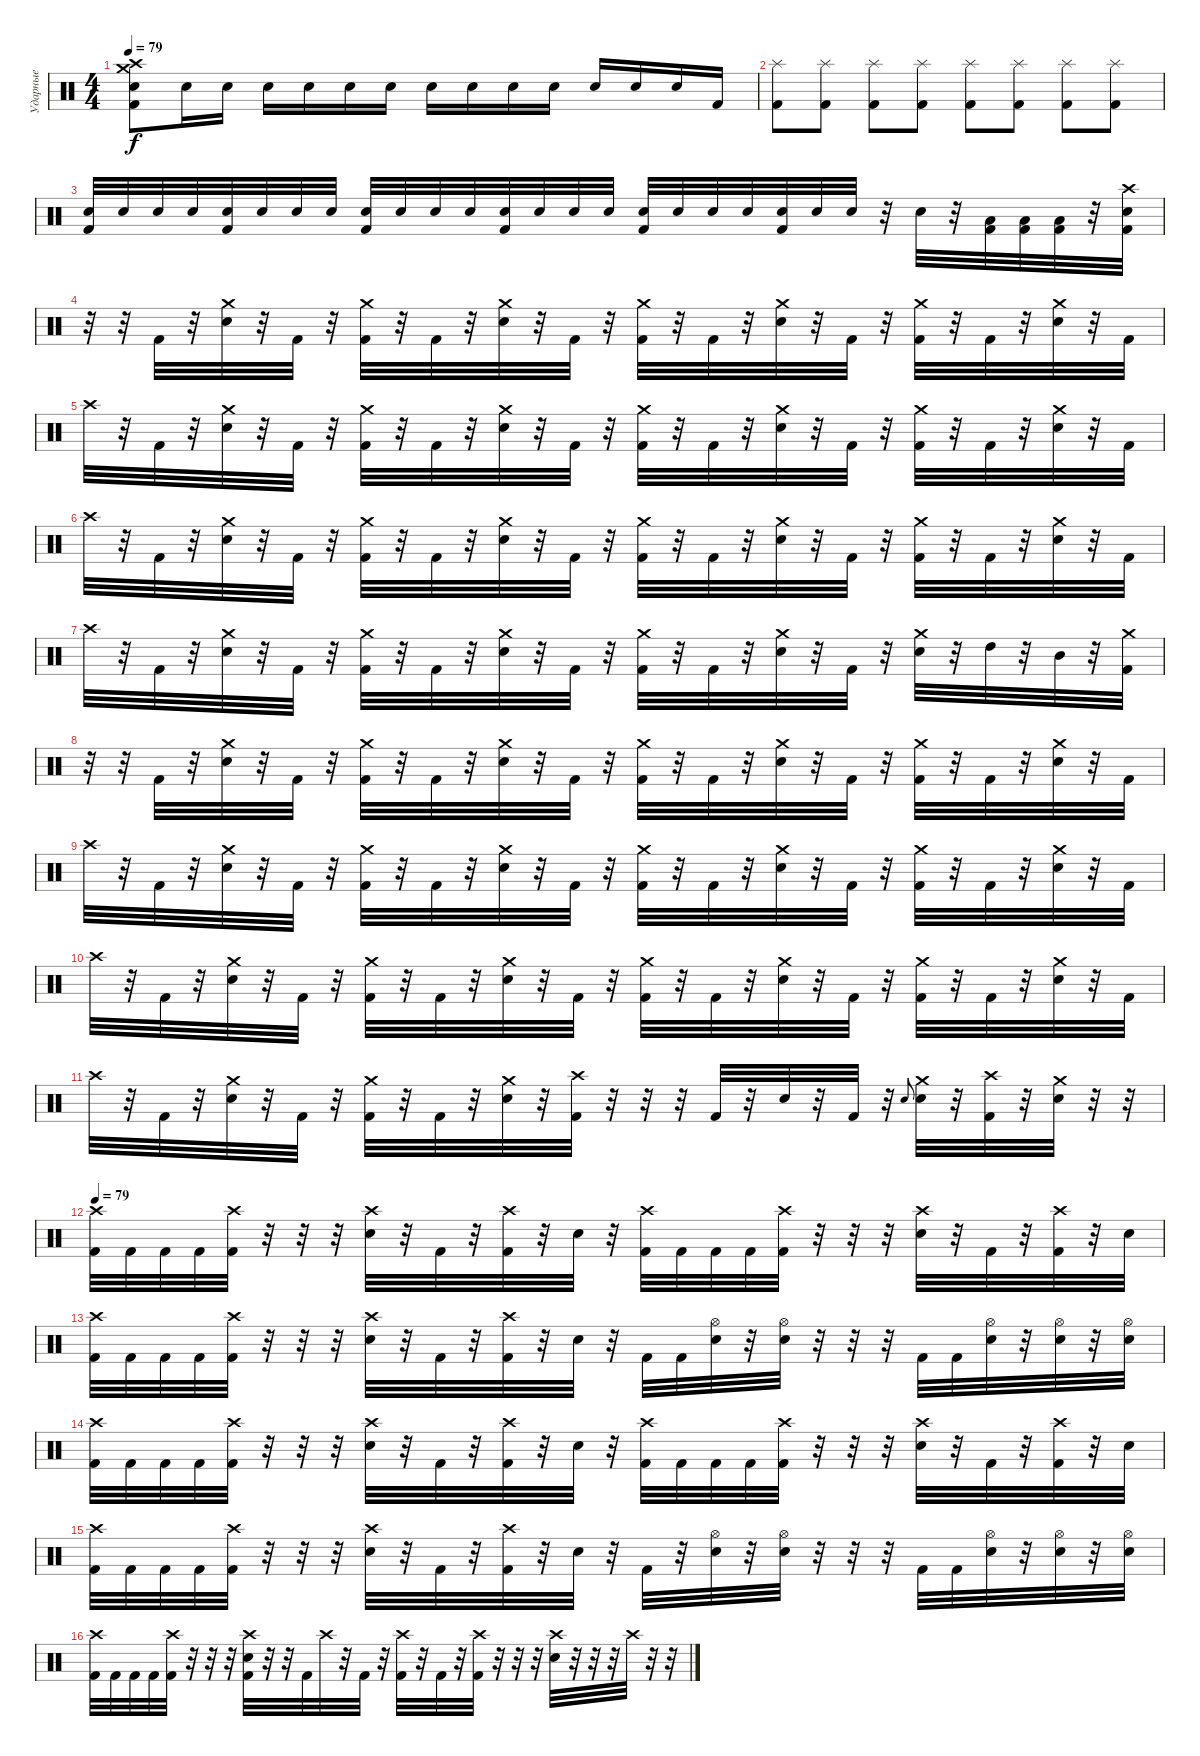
\track ("Ударные" "Ударные") {instrument percussion}
\staff {score}
\articulation defaults
\ts (4 4)
\tempo 79
\clef neutral
\ks c
("Crash high (hit)" "Crash medium (hit)" "Kick (hit) 2" "Electric Snare (hit)").8{dy f} "Electric Snare (hit)".16{volume 7} "Electric Snare (hit)".16{volume 7} "Electric Snare (hit)".16{volume 8} "Electric Snare (hit)".16{volume 10} "Electric Snare (hit)".16{volume 12} "Electric Snare (hit)".16{volume 11} "Electric Snare (hit)".16{volume 14} "Electric Snare (hit)".16{volume 15} "Electric Snare (hit)".16{volume 16} "Electric Snare (hit)".16{volume 16} "Electric Snare (hit)".16{volume 16} "Electric Snare (hit)".16{volume 16} "Electric Snare (hit)".16 "Kick (hit) 2".16 |
("Splash (hit)" "Kick (hit) 2").8 ("Splash (hit)" "Kick (hit) 2").8 ("Splash (hit)" "Kick (hit) 2").8 ("Splash (hit)" "Kick (hit) 2").8 ("Splash (hit)" "Kick (hit) 2").8 ("Splash (hit)" "Kick (hit) 2").8 ("Splash (hit)" "Kick (hit) 2").8 ("Splash (hit)" "Kick (hit) 2").8 |
("Electric Snare (hit)" "Kick (hit) 2").32 "Electric Snare (hit)".32 "Electric Snare (hit)".32 "Electric Snare (hit)".32 ("Electric Snare (hit)" "Kick (hit) 2").32 "Electric Snare (hit)".32 "Electric Snare (hit)".32 "Electric Snare (hit)".32 ("Electric Snare (hit)" "Kick (hit) 2").32 "Electric Snare (hit)".32 "Electric Snare (hit)".32 "Electric Snare (hit)".32 ("Electric Snare (hit)" "Kick (hit) 2").32 "Electric Snare (hit)".32 "Electric Snare (hit)".32 "Electric Snare (hit)".32 ("Electric Snare (hit)" "Kick (hit) 2").32 "Electric Snare (hit)".32 "Electric Snare (hit)".32 "Electric Snare (hit)".32 ("Electric Snare (hit)" "Kick (hit) 2").32 "Electric Snare (hit)".32 "Electric Snare (hit)".32 r.32 "Electric Snare (hit)".32 r.32 ("Kick (hit) 2" "Low Tom (hit)").32 ("Kick (hit) 2" "Low Tom (hit)").32 ("Kick (hit) 2" "Low Tom (hit)").32 r.32 ("Crash high (hit)" "Electric Snare (hit)" "Kick (hit) 2").32 |
r.32 r.32 "Kick (hit) 2".32 r.32 ("Crash medium (hit)" "Electric Snare (hit)").32 r.32 "Kick (hit) 2".32 r.32 ("Crash medium (hit)" "Kick (hit) 2").32 r.32 "Kick (hit) 2".32 r.32 ("Crash medium (hit)" "Electric Snare (hit)").32 r.32 "Kick (hit) 2".32 r.32 ("Crash medium (hit)" "Kick (hit) 2").32 r.32 "Kick (hit) 2".32 r.32 ("Crash medium (hit)" "Electric Snare (hit)").32 r.32 "Kick (hit) 2".32 r.32 ("Crash medium (hit)" "Kick (hit) 2").32 r.32 "Kick (hit) 2".32 r.32 ("Crash medium (hit)" "Electric Snare (hit)").32 r.32 "Kick (hit) 2".32 |
"Crash high (hit)".32 r.32 "Kick (hit) 2".32 r.32 ("Crash medium (hit)" "Electric Snare (hit)").32 r.32 "Kick (hit) 2".32 r.32 ("Crash medium (hit)" "Kick (hit) 2").32 r.32 "Kick (hit) 2".32 r.32 ("Crash medium (hit)" "Electric Snare (hit)").32 r.32 "Kick (hit) 2".32 r.32 ("Crash medium (hit)" "Kick (hit) 2").32 r.32 "Kick (hit) 2".32 r.32 ("Crash medium (hit)" "Electric Snare (hit)").32 r.32 "Kick (hit) 2".32 r.32 ("Crash medium (hit)" "Kick (hit) 2").32 r.32 "Kick (hit) 2".32 r.32 ("Crash medium (hit)" "Electric Snare (hit)").32 r.32 "Kick (hit) 2".32 |
"Crash high (hit)".32 r.32 "Kick (hit) 2".32 r.32 ("Crash medium (hit)" "Electric Snare (hit)").32 r.32 "Kick (hit) 2".32 r.32 ("Crash medium (hit)" "Kick (hit) 2").32 r.32 "Kick (hit) 2".32 r.32 ("Crash medium (hit)" "Electric Snare (hit)").32 r.32 "Kick (hit) 2".32 r.32 ("Crash medium (hit)" "Kick (hit) 2").32 r.32 "Kick (hit) 2".32 r.32 ("Crash medium (hit)" "Electric Snare (hit)").32 r.32 "Kick (hit) 2".32 r.32 ("Crash medium (hit)" "Kick (hit) 2").32 r.32 "Kick (hit) 2".32 r.32 ("Crash medium (hit)" "Electric Snare (hit)").32 r.32 "Kick (hit) 2".32 |
"Crash high (hit)".32 r.32 "Kick (hit) 2".32 r.32 ("Crash medium (hit)" "Electric Snare (hit)").32 r.32 "Kick (hit) 2".32 r.32 ("Crash medium (hit)" "Kick (hit) 2").32 r.32 "Kick (hit) 2".32 r.32 ("Crash medium (hit)" "Electric Snare (hit)").32 r.32 "Kick (hit) 2".32 r.32 ("Crash medium (hit)" "Kick (hit) 2").32 r.32 "Kick (hit) 2".32 r.32 ("Crash medium (hit)" "Electric Snare (hit)").32 r.32 "Kick (hit) 2".32 r.32 ("Crash medium (hit)" "Electric Snare (hit)").32 r.32 "High Tom (hit)".32 r.32 "Mid Tom (hit)".32 r.32 ("Crash medium (hit)" "Kick (hit) 2").32 |
r.32 r.32 "Kick (hit) 2".32 r.32 ("Crash medium (hit)" "Electric Snare (hit)").32 r.32 "Kick (hit) 2".32 r.32 ("Crash medium (hit)" "Kick (hit) 2").32 r.32 "Kick (hit) 2".32 r.32 ("Crash medium (hit)" "Electric Snare (hit)").32 r.32 "Kick (hit) 2".32 r.32 ("Crash medium (hit)" "Kick (hit) 2").32 r.32 "Kick (hit) 2".32 r.32 ("Crash medium (hit)" "Electric Snare (hit)").32 r.32 "Kick (hit) 2".32 r.32 ("Crash medium (hit)" "Kick (hit) 2").32 r.32 "Kick (hit) 2".32 r.32 ("Crash medium (hit)" "Electric Snare (hit)").32 r.32 "Kick (hit) 2".32 |
"Crash high (hit)".32 r.32 "Kick (hit) 2".32 r.32 ("Crash medium (hit)" "Electric Snare (hit)").32 r.32 "Kick (hit) 2".32 r.32 ("Crash medium (hit)" "Kick (hit) 2").32 r.32 "Kick (hit) 2".32 r.32 ("Crash medium (hit)" "Electric Snare (hit)").32 r.32 "Kick (hit) 2".32 r.32 ("Crash medium (hit)" "Kick (hit) 2").32 r.32 "Kick (hit) 2".32 r.32 ("Crash medium (hit)" "Electric Snare (hit)").32 r.32 "Kick (hit) 2".32 r.32 ("Crash medium (hit)" "Kick (hit) 2").32 r.32 "Kick (hit) 2".32 r.32 ("Crash medium (hit)" "Electric Snare (hit)").32 r.32 "Kick (hit) 2".32 |
"Crash high (hit)".32 r.32 "Kick (hit) 2".32 r.32 ("Crash medium (hit)" "Electric Snare (hit)").32 r.32 "Kick (hit) 2".32 r.32 ("Crash medium (hit)" "Kick (hit) 2").32 r.32 "Kick (hit) 2".32 r.32 ("Crash medium (hit)" "Electric Snare (hit)").32 r.32 "Kick (hit) 2".32 r.32 ("Crash medium (hit)" "Kick (hit) 2").32 r.32 "Kick (hit) 2".32 r.32 ("Crash medium (hit)" "Electric Snare (hit)").32 r.32 "Kick (hit) 2".32 r.32 ("Crash medium (hit)" "Kick (hit) 2").32 r.32 "Kick (hit) 2".32 r.32 ("Crash medium (hit)" "Electric Snare (hit)").32 r.32 "Kick (hit) 2".32 |
"Crash high (hit)".32 r.32 "Kick (hit) 2".32 r.32 ("Crash medium (hit)" "Electric Snare (hit)").32 r.32 "Kick (hit) 2".32 r.32 ("Crash medium (hit)" "Kick (hit) 2").32 r.32 "Kick (hit) 2".32 r.32 ("Crash medium (hit)" "Electric Snare (hit)").32 r.32 ("Crash high (hit)" "Kick (hit) 2").32 r.32 r.32 r.32 "Kick (hit) 2".32 r.32 "Electric Snare (hit)".32 r.32 "Kick (hit) 2".32 r.32 "Electric Snare (hit)".8{gr onbeat} ("Crash medium (hit)" "Electric Snare (hit)").32 r.32 ("Crash high (hit)" "Kick (hit) 2").32 r.32 ("Crash medium (hit)" "Electric Snare (hit)").32 r.32 r.32 |
\tempo 79
("Crash high (hit)" "Kick (hit) 2").32 "Kick (hit) 2".32 "Kick (hit) 2".32 "Kick (hit) 2".32 ("Crash high (hit)" "Kick (hit) 2").32 r.32 r.32 r.32 ("Crash high (hit)" "Electric Snare (hit)").32 r.32 "Kick (hit) 2".32 r.32 ("Crash high (hit)" "Kick (hit) 2").32 r.32 "Electric Snare (hit)".32 r.32 ("Crash high (hit)" "Kick (hit) 2").32 "Kick (hit) 2".32 "Kick (hit) 2".32 "Kick (hit) 2".32 ("Crash high (hit)" "Kick (hit) 2").32 r.32 r.32 r.32 ("Crash high (hit)" "Electric Snare (hit)").32 r.32 "Kick (hit) 2".32 r.32 ("Crash high (hit)" "Kick (hit) 2").32 r.32 "Electric Snare (hit)".32 |
("Crash high (hit)" "Kick (hit) 2").32 "Kick (hit) 2".32 "Kick (hit) 2".32 "Kick (hit) 2".32 ("Crash high (hit)" "Kick (hit) 2").32 r.32 r.32 r.32 ("Crash high (hit)" "Electric Snare (hit)").32 r.32 "Kick (hit) 2".32 r.32 ("Crash high (hit)" "Kick (hit) 2").32 r.32 "Electric Snare (hit)".32 r.32 "Kick (hit) 2".32 "Kick (hit) 2".32 ("Hi-Hat (open)" "Electric Snare (hit)").32 r.32 ("Hi-Hat (open)" "Electric Snare (hit)").32 r.32 r.32 r.32 "Kick (hit) 2".32 "Kick (hit) 2".32 ("Hi-Hat (open)" "Electric Snare (hit)").32 r.32 ("Hi-Hat (open)" "Electric Snare (hit)").32 r.32 ("Hi-Hat (open)" "Electric Snare (hit)").32 |
("Crash high (hit)" "Kick (hit) 2").32 "Kick (hit) 2".32 "Kick (hit) 2".32 "Kick (hit) 2".32 ("Crash high (hit)" "Kick (hit) 2").32 r.32 r.32 r.32 ("Crash high (hit)" "Electric Snare (hit)").32 r.32 "Kick (hit) 2".32 r.32 ("Crash high (hit)" "Kick (hit) 2").32 r.32 "Electric Snare (hit)".32 r.32 ("Crash high (hit)" "Kick (hit) 2").32 "Kick (hit) 2".32 "Kick (hit) 2".32 "Kick (hit) 2".32 ("Crash high (hit)" "Kick (hit) 2").32 r.32 r.32 r.32 ("Crash high (hit)" "Electric Snare (hit)").32 r.32 "Kick (hit) 2".32 r.32 ("Crash high (hit)" "Kick (hit) 2").32 r.32 "Electric Snare (hit)".32 |
("Crash high (hit)" "Kick (hit) 2").32 "Kick (hit) 2".32 "Kick (hit) 2".32 "Kick (hit) 2".32 ("Crash high (hit)" "Kick (hit) 2").32 r.32 r.32 r.32 ("Crash high (hit)" "Electric Snare (hit)").32 r.32 "Kick (hit) 2".32 r.32 ("Crash high (hit)" "Kick (hit) 2").32 r.32 "Electric Snare (hit)".32 r.32 "Kick (hit) 2".32 r.32 ("Hi-Hat (open)" "Electric Snare (hit)").32 r.32 ("Hi-Hat (open)" "Electric Snare (hit)").32 r.32 r.32 r.32 "Kick (hit) 2".32 "Kick (hit) 2".32 ("Hi-Hat (open)" "Electric Snare (hit)").32 r.32 ("Hi-Hat (open)" "Electric Snare (hit)").32 r.32 ("Hi-Hat (open)" "Electric Snare (hit)").32 |
("Crash high (hit)" "Kick (hit) 2").32 "Kick (hit) 2".32 "Kick (hit) 2".32 "Kick (hit) 2".32 ("Crash high (hit)" "Kick (hit) 2").32 r.32 r.32 r.32 ("Crash high (hit)" "Kick (hit) 2" "Electric Snare (hit)").32 r.32 r.32 "Kick (hit) 2".32 "Crash high (hit)".32 r.32 "Kick (hit) 2".32 r.32 ("Crash high (hit)" "Kick (hit) 2").32 r.32 "Kick (hit) 2".32 r.32 ("Crash high (hit)" "Kick (hit) 2").32 r.32 r.32 r.32 ("Crash high (hit)" "Electric Snare (hit)").32 r.32 r.32 r.32 "Crash high (hit)".32 r.32 r.32
